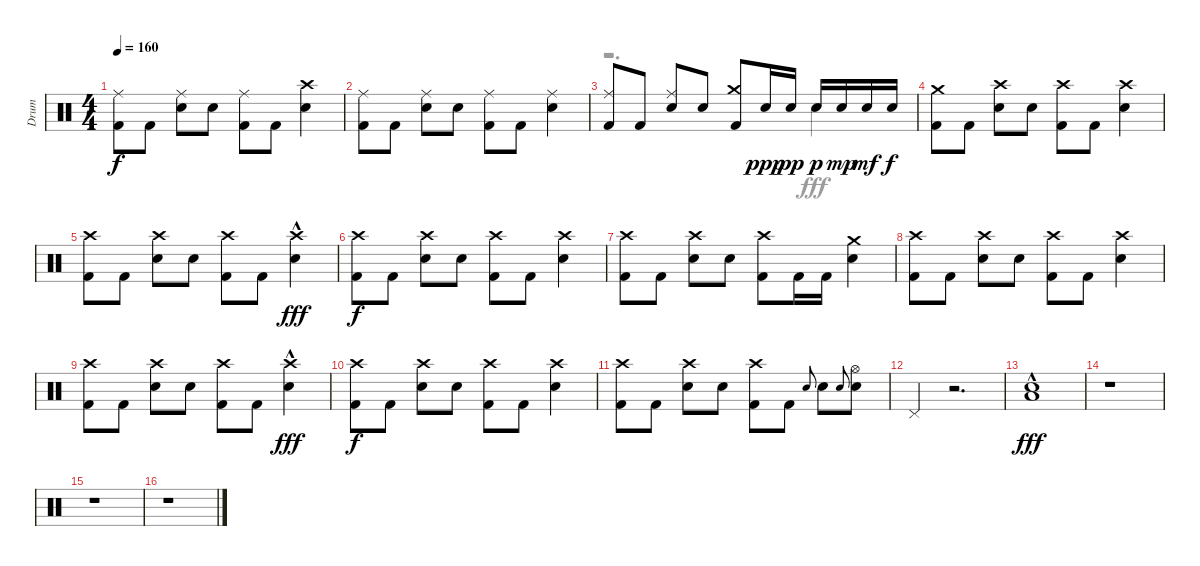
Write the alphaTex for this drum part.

\track ("Drum" "Drum") {instrument percussion}
\staff {score}
\articulation defaults
\voice
\ts (4 4)
\tempo 160
\clef neutral
\ks c
("Ride (middle)" "Kick (hit) 2").8{dy f} "Kick (hit) 2".8 ("Ride (middle)" "Electric Snare (hit)").8 "Electric Snare (hit)".8 ("Ride (middle)" "Kick (hit) 2").8 "Kick (hit) 2".8 ("Crash high (hit)" "Electric Snare (hit)").4 |
("Ride (middle)" "Kick (hit) 2").8 "Kick (hit) 2".8 ("Ride (middle)" "Electric Snare (hit)").8 "Electric Snare (hit)".8 ("Ride (middle)" "Kick (hit) 2").8 "Kick (hit) 2".8 ("Ride (middle)" "Electric Snare (hit)").4 |
("Ride (middle)" "Kick (hit) 2").8 "Kick (hit) 2".8 ("Ride (middle)" "Electric Snare (hit)").8 "Electric Snare (hit)".8 ("Crash medium (hit)" "Kick (hit) 2").8 "Electric Snare (hit)".16{dy ppp} "Electric Snare (hit)".16{dy pp} "Electric Snare (hit)".16{dy p} "Electric Snare (hit)".16{dy mp} "Electric Snare (hit)".16{dy mf} "Electric Snare (hit)".16{dy f} |
("Crash medium (hit)" "Kick (hit) 2").8 "Kick (hit) 2".8 ("Crash high (hit)" "Electric Snare (hit)").8 "Electric Snare (hit)".8 ("Crash high (hit)" "Kick (hit) 2").8 "Kick (hit) 2".8 ("Crash high (hit)" "Electric Snare (hit)").4 |
("Crash high (hit)" "Kick (hit) 2").8 "Kick (hit) 2".8 ("Crash high (hit)" "Electric Snare (hit)").8 "Electric Snare (hit)".8 ("Crash high (hit)" "Kick (hit) 2").8 "Kick (hit) 2".8 ("Crash high (hit)"{hac} "Electric Snare (hit)").4{dy fff} |
("Crash high (hit)" "Kick (hit) 2").8{dy f} "Kick (hit) 2".8 ("Crash high (hit)" "Electric Snare (hit)").8 "Electric Snare (hit)".8 ("Crash high (hit)" "Kick (hit) 2").8 "Kick (hit) 2".8 ("Crash high (hit)" "Electric Snare (hit)").4 |
("Crash high (hit)" "Kick (hit) 2").8 "Kick (hit) 2".8 ("Crash high (hit)" "Electric Snare (hit)").8 "Electric Snare (hit)".8 ("Crash high (hit)" "Kick (hit) 2").8 "Kick (hit) 2".16 "Kick (hit) 2".16 ("Crash medium (hit)" "Electric Snare (hit)").4 |
("Crash high (hit)" "Kick (hit) 2").8 "Kick (hit) 2".8 ("Crash high (hit)" "Electric Snare (hit)").8 "Electric Snare (hit)".8 ("Crash high (hit)" "Kick (hit) 2").8 "Kick (hit) 2".8 ("Crash high (hit)" "Electric Snare (hit)").4 |
("Crash high (hit)" "Kick (hit) 2").8 "Kick (hit) 2".8 ("Crash high (hit)" "Electric Snare (hit)").8 "Electric Snare (hit)".8 ("Crash high (hit)" "Kick (hit) 2").8 "Kick (hit) 2".8 ("Crash high (hit)"{hac} "Electric Snare (hit)").4{dy fff} |
("Crash high (hit)" "Kick (hit) 2").8{dy f} "Kick (hit) 2".8 ("Crash high (hit)" "Electric Snare (hit)").8 "Electric Snare (hit)".8 ("Crash high (hit)" "Kick (hit) 2").8 "Kick (hit) 2".8 ("Crash high (hit)" "Electric Snare (hit)").4 |
("Crash high (hit)" "Kick (hit) 2").8 "Kick (hit) 2".8 ("Crash high (hit)" "Electric Snare (hit)").8 "Electric Snare (hit)".8 ("Crash high (hit)" "Kick (hit) 2").8 "Kick (hit) 2".8 "Electric Snare (hit)".8{gr onbeat} "Electric Snare (hit)".8 "Electric Snare (hit)".8{gr onbeat} ("Hi-Hat (open)" "Electric Snare (hit)").8 |
"Pedal Hi-Hat (hit)".4 r.2{d} |
("Electric Snare (hit)"{hac} "Low Floor Tom (hit)"{hac}).1{dy fff} |
r.1 |
r.1 |
r.1
\voice
\clef neutral
\ottava regular
\simile none
\ks c
|
|
r.2{d} "Electric Snare (hit)".4 |
|
|
|
|
|
|
|
|
|
|
|
|
